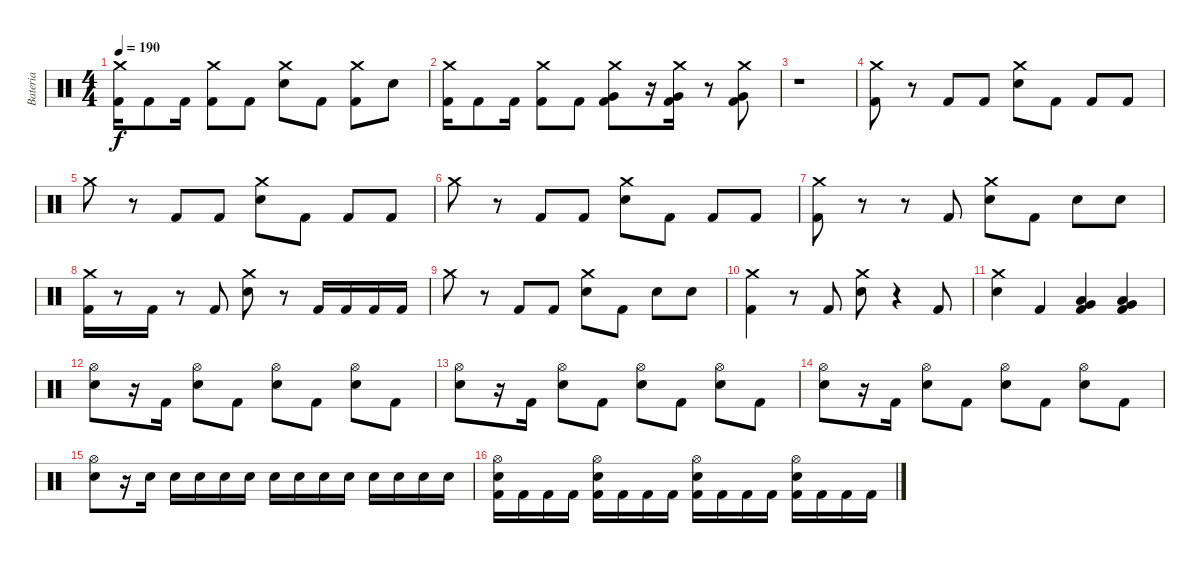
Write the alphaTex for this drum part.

\track ("Bateria" "Bateria") {instrument percussion}
\staff {score}
\articulation defaults
\ts (4 4)
\tempo 190
\clef neutral
\ks c
("Crash medium (hit)" "Kick (hit) 2").16{dy f} "Kick (hit) 2".8 "Kick (hit) 2".16 ("Crash medium (hit)" "Kick (hit) 2").8 "Kick (hit) 2".8 ("Crash medium (hit)" "Electric Snare (hit)").8 "Kick (hit) 2".8 ("Crash medium (hit)" "Kick (hit) 2").8 "Electric Snare (hit)".8 |
("Crash medium (hit)" "Kick (hit) 2").16 "Kick (hit) 2".8 "Kick (hit) 2".16 ("Crash medium (hit)" "Kick (hit) 2").8 "Kick (hit) 2".8 ("Crash medium (hit)" "Very Low Tom (hit)" "Kick (hit) 2").8 r.16 ("Crash medium (hit)" "Very Low Tom (hit)" "Kick (hit) 2").16 r.8 ("Crash medium (hit)" "Very Low Tom (hit)" "Kick (hit) 2").8 |
r.1 |
("Crash medium (hit)" "Kick (hit) 2").8 r.8 "Kick (hit) 2".8 "Kick (hit) 2".8 ("Crash medium (hit)" "Electric Snare (hit)").8 "Kick (hit) 2".8 "Kick (hit) 2".8 "Kick (hit) 2".8 |
"Crash medium (hit)".8 r.8 "Kick (hit) 2".8 "Kick (hit) 2".8 ("Crash medium (hit)" "Electric Snare (hit)").8 "Kick (hit) 2".8 "Kick (hit) 2".8 "Kick (hit) 2".8 |
"Crash medium (hit)".8 r.8 "Kick (hit) 2".8 "Kick (hit) 2".8 ("Crash medium (hit)" "Electric Snare (hit)").8 "Kick (hit) 2".8 "Kick (hit) 2".8 "Kick (hit) 2".8 |
("Crash medium (hit)" "Kick (hit) 2").8 r.8 r.8 "Kick (hit) 2".8 ("Crash medium (hit)" "Electric Snare (hit)").8 "Kick (hit) 2".8 "Electric Snare (hit)".8 "Electric Snare (hit)".8 |
("Crash medium (hit)" "Kick (hit) 2").16 r.8 "Kick (hit) 2".16 r.8 "Kick (hit) 2".8 ("Crash medium (hit)" "Electric Snare (hit)").8 r.8 "Kick (hit) 2".16 "Kick (hit) 2".16 "Kick (hit) 2".16 "Kick (hit) 2".16 |
"Crash medium (hit)".8 r.8 "Kick (hit) 2".8 "Kick (hit) 2".8 ("Crash medium (hit)" "Electric Snare (hit)").8 "Kick (hit) 2".8 "Electric Snare (hit)".8 "Electric Snare (hit)".8 |
("Crash medium (hit)" "Kick (hit) 2").4 r.8 "Kick (hit) 2".8 ("Crash medium (hit)" "Electric Snare (hit)").8 r.4 "Kick (hit) 2".8 |
("Crash medium (hit)" "Electric Snare (hit)").4 "Kick (hit) 2".4 ("Low Floor Tom (hit)" "Very Low Tom (hit)" "Kick (hit) 2").4 ("Low Floor Tom (hit)" "Very Low Tom (hit)" "Kick (hit) 2").4 |
("Hi-Hat (open)" "Electric Snare (hit)").8 r.16 "Kick (hit) 2".16 ("Hi-Hat (open)" "Electric Snare (hit)").8 "Kick (hit) 2".8 ("Hi-Hat (open)" "Electric Snare (hit)").8 "Kick (hit) 2".8 ("Hi-Hat (open)" "Electric Snare (hit)").8 "Kick (hit) 2".8 |
("Hi-Hat (open)" "Electric Snare (hit)").8 r.16 "Kick (hit) 2".16 ("Hi-Hat (open)" "Electric Snare (hit)").8 "Kick (hit) 2".8 ("Hi-Hat (open)" "Electric Snare (hit)").8 "Kick (hit) 2".8 ("Hi-Hat (open)" "Electric Snare (hit)").8 "Kick (hit) 2".8 |
("Hi-Hat (open)" "Electric Snare (hit)").8 r.16 "Kick (hit) 2".16 ("Hi-Hat (open)" "Electric Snare (hit)").8 "Kick (hit) 2".8 ("Hi-Hat (open)" "Electric Snare (hit)").8 "Kick (hit) 2".8 ("Hi-Hat (open)" "Electric Snare (hit)").8 "Kick (hit) 2".8 |
("Hi-Hat (open)" "Electric Snare (hit)").8 r.16 "Electric Snare (hit)".16 "Electric Snare (hit)".16 "Electric Snare (hit)".16 "Electric Snare (hit)".16 "Electric Snare (hit)".16 "Electric Snare (hit)".16 "Electric Snare (hit)".16 "Electric Snare (hit)".16 "Electric Snare (hit)".16 "Electric Snare (hit)".16 "Electric Snare (hit)".16 "Electric Snare (hit)".16 "Electric Snare (hit)".16 |
("Hi-Hat (open)" "Electric Snare (hit)" "Kick (hit) 2").16 "Kick (hit) 2".16 "Kick (hit) 2".16 "Kick (hit) 2".16 ("Hi-Hat (open)" "Electric Snare (hit)" "Kick (hit) 2").16 "Kick (hit) 2".16 "Kick (hit) 2".16 "Kick (hit) 2".16 ("Hi-Hat (open)" "Electric Snare (hit)" "Kick (hit) 2").16 "Kick (hit) 2".16 "Kick (hit) 2".16 "Kick (hit) 2".16 ("Hi-Hat (open)" "Electric Snare (hit)" "Kick (hit) 2").16 "Kick (hit) 2".16 "Kick (hit) 2".16 "Kick (hit) 2".16
